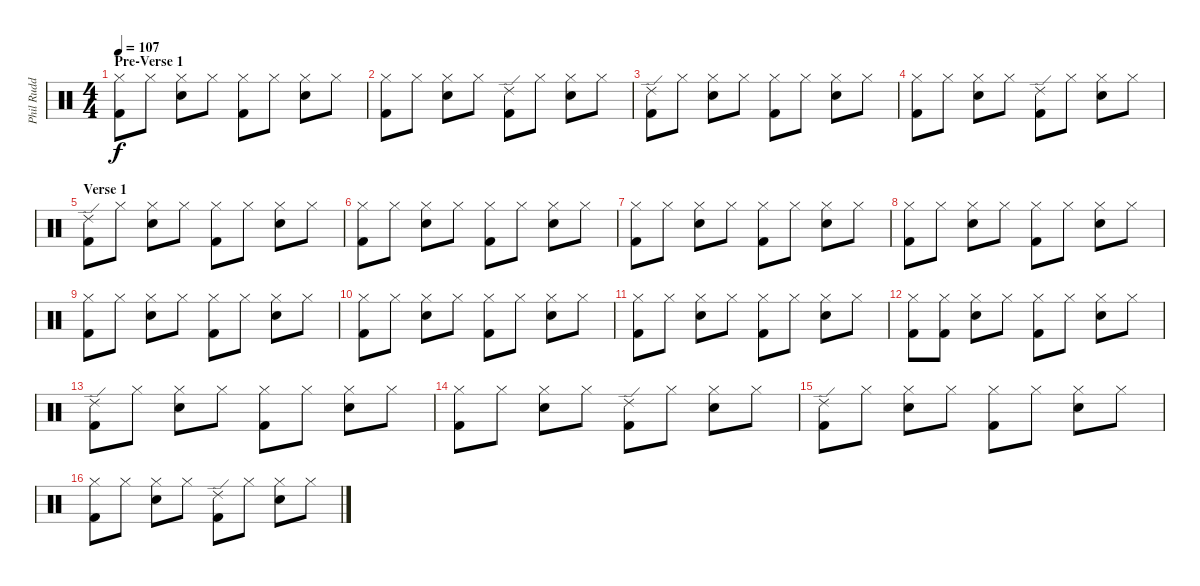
\track ("Phil Rudd" "Phil Rudd") {instrument percussion}
\staff {score}
\articulation defaults
\ts (4 4)
\section ("" "Pre-Verse 1")
\tempo 107
\clef neutral
\ks c
("Hi-Hat (closed)" "Kick (hit) 2").8{dy f} "Hi-Hat (closed)".8 ("Hi-Hat (closed)" "Snare (hit) 2").8 "Hi-Hat (closed)".8 ("Hi-Hat (closed)" "Kick (hit) 2").8 "Hi-Hat (closed)".8 ("Hi-Hat (closed)" "Snare (hit) 2").8 "Hi-Hat (closed)".8 |
("Hi-Hat (closed)" "Kick (hit) 2").8 "Hi-Hat (closed)".8 ("Hi-Hat (closed)" "Snare (hit) 2").8 "Hi-Hat (closed)".8 ("Kick (hit) 2" "Ride (edge) 2").8 "Hi-Hat (closed)".8 ("Hi-Hat (closed)" "Snare (hit) 2").8 "Hi-Hat (closed)".8 |
("Kick (hit) 2" "Ride (edge) 2").8 "Hi-Hat (closed)".8 ("Hi-Hat (closed)" "Snare (hit) 2").8 "Hi-Hat (closed)".8 ("Hi-Hat (closed)" "Kick (hit) 2").8 "Hi-Hat (closed)".8 ("Hi-Hat (closed)" "Snare (hit) 2").8 "Hi-Hat (closed)".8 |
("Hi-Hat (closed)" "Kick (hit) 2").8 "Hi-Hat (closed)".8 ("Hi-Hat (closed)" "Snare (hit) 2").8 "Hi-Hat (closed)".8 ("Kick (hit) 2" "Ride (edge) 2").8 "Hi-Hat (closed)".8 ("Hi-Hat (closed)" "Snare (hit) 2").8 "Hi-Hat (closed)".8 |
\section ("" "Verse 1")
("Kick (hit) 2" "Ride (edge) 2").8 "Hi-Hat (closed)".8 ("Hi-Hat (closed)" "Snare (hit) 2").8 "Hi-Hat (closed)".8 ("Hi-Hat (closed)" "Kick (hit) 2").8 "Hi-Hat (closed)".8 ("Hi-Hat (closed)" "Snare (hit) 2").8 "Hi-Hat (closed)".8 |
("Hi-Hat (closed)" "Kick (hit) 2").8 "Hi-Hat (closed)".8 ("Hi-Hat (closed)" "Snare (hit) 2").8 "Hi-Hat (closed)".8 ("Hi-Hat (closed)" "Kick (hit) 2").8 "Hi-Hat (closed)".8 ("Hi-Hat (closed)" "Snare (hit) 2").8 "Hi-Hat (closed)".8 |
("Hi-Hat (closed)" "Kick (hit) 2").8 "Hi-Hat (closed)".8 ("Hi-Hat (closed)" "Snare (hit) 2").8 "Hi-Hat (closed)".8 ("Hi-Hat (closed)" "Kick (hit) 2").8 "Hi-Hat (closed)".8 ("Hi-Hat (closed)" "Snare (hit) 2").8 "Hi-Hat (closed)".8 |
("Hi-Hat (closed)" "Kick (hit) 2").8 "Hi-Hat (closed)".8 ("Hi-Hat (closed)" "Snare (hit) 2").8 "Hi-Hat (closed)".8 ("Hi-Hat (closed)" "Kick (hit) 2").8 "Hi-Hat (closed)".8 ("Hi-Hat (closed)" "Snare (hit) 2").8 "Hi-Hat (closed)".8 |
("Hi-Hat (closed)" "Kick (hit) 2").8 "Hi-Hat (closed)".8 ("Hi-Hat (closed)" "Snare (hit) 2").8 "Hi-Hat (closed)".8 ("Hi-Hat (closed)" "Kick (hit) 2").8 "Hi-Hat (closed)".8 ("Hi-Hat (closed)" "Snare (hit) 2").8 "Hi-Hat (closed)".8 |
("Hi-Hat (closed)" "Kick (hit) 2").8 "Hi-Hat (closed)".8 ("Hi-Hat (closed)" "Snare (hit) 2").8 "Hi-Hat (closed)".8 ("Hi-Hat (closed)" "Kick (hit) 2").8 "Hi-Hat (closed)".8 ("Hi-Hat (closed)" "Snare (hit) 2").8 "Hi-Hat (closed)".8 |
("Hi-Hat (closed)" "Kick (hit) 2").8 "Hi-Hat (closed)".8 ("Hi-Hat (closed)" "Snare (hit) 2").8 "Hi-Hat (closed)".8 ("Hi-Hat (closed)" "Kick (hit) 2").8 "Hi-Hat (closed)".8 ("Hi-Hat (closed)" "Snare (hit) 2").8 "Hi-Hat (closed)".8 |
("Hi-Hat (closed)" "Kick (hit) 2").8 ("Hi-Hat (closed)" "Kick (hit) 2").8 ("Hi-Hat (closed)" "Snare (hit) 2").8 "Hi-Hat (closed)".8 ("Hi-Hat (closed)" "Kick (hit) 2").8 "Hi-Hat (closed)".8 ("Hi-Hat (closed)" "Snare (hit) 2").8 "Hi-Hat (closed)".8 |
("Kick (hit) 2" "Ride (edge) 2").8 "Hi-Hat (closed)".8 ("Hi-Hat (closed)" "Snare (hit) 2").8 "Hi-Hat (closed)".8 ("Hi-Hat (closed)" "Kick (hit) 2").8 "Hi-Hat (closed)".8 ("Hi-Hat (closed)" "Snare (hit) 2").8 "Hi-Hat (closed)".8 |
("Hi-Hat (closed)" "Kick (hit) 2").8 "Hi-Hat (closed)".8 ("Hi-Hat (closed)" "Snare (hit) 2").8 "Hi-Hat (closed)".8 ("Kick (hit) 2" "Ride (edge) 2").8 "Hi-Hat (closed)".8 ("Hi-Hat (closed)" "Snare (hit) 2").8 "Hi-Hat (closed)".8 |
("Kick (hit) 2" "Ride (edge) 2").8 "Hi-Hat (closed)".8 ("Hi-Hat (closed)" "Snare (hit) 2").8 "Hi-Hat (closed)".8 ("Hi-Hat (closed)" "Kick (hit) 2").8 "Hi-Hat (closed)".8 ("Hi-Hat (closed)" "Snare (hit) 2").8 "Hi-Hat (closed)".8 |
("Hi-Hat (closed)" "Kick (hit) 2").8 "Hi-Hat (closed)".8 ("Hi-Hat (closed)" "Snare (hit) 2").8 "Hi-Hat (closed)".8 ("Kick (hit) 2" "Ride (edge) 2").8 "Hi-Hat (closed)".8 ("Hi-Hat (closed)" "Snare (hit) 2").8 "Hi-Hat (closed)".8
